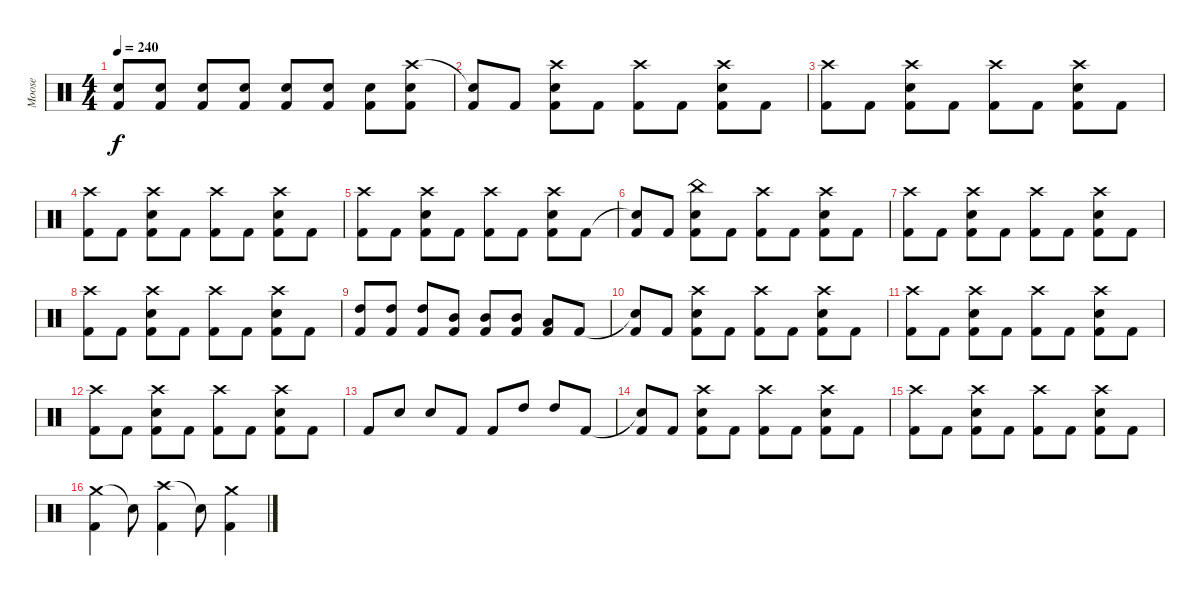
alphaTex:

\track ("Moose" "Moose") {instrument percussion}
\staff {score}
\articulation defaults
\ts (4 4)
\tempo 240
\clef neutral
\ks c
("Snare (hit) 2" "Kick (hit) 2").8{dy f} ("Snare (hit) 2" "Kick (hit) 2").8 ("Snare (hit) 2" "Kick (hit) 2").8 ("Snare (hit) 2" "Kick (hit) 2").8 ("Snare (hit) 2" "Kick (hit) 2").8 ("Snare (hit) 2" "Kick (hit) 2").8 ("Snare (hit) 2" "Kick (hit) 2").8 ("Crash high (hit)" "Snare (hit) 2" "Kick (hit) 2").8 |
("Snare (hit)"{t} "Kick (hit) 2").8 "Kick (hit) 2".8 ("Crash high (hit)" "Snare (hit) 2" "Kick (hit) 2").8 "Kick (hit) 2".8 ("Crash high (hit)" "Kick (hit) 2").8 "Kick (hit) 2".8 ("Crash high (hit)" "Snare (hit) 2" "Kick (hit) 2").8 "Kick (hit) 2".8 |
("Crash high (hit)" "Kick (hit) 2").8 "Kick (hit) 2".8 ("Crash high (hit)" "Snare (hit) 2" "Kick (hit) 2").8 "Kick (hit) 2".8 ("Crash high (hit)" "Kick (hit) 2").8 "Kick (hit) 2".8 ("Crash high (hit)" "Snare (hit) 2" "Kick (hit) 2").8 "Kick (hit) 2".8 |
("Crash high (hit)" "Kick (hit) 2").8 "Kick (hit) 2".8 ("Crash high (hit)" "Snare (hit) 2" "Kick (hit) 2").8 "Kick (hit) 2".8 ("Crash high (hit)" "Kick (hit) 2").8 "Kick (hit) 2".8 ("Crash high (hit)" "Snare (hit) 2" "Kick (hit) 2").8 "Kick (hit) 2".8 |
("Crash high (hit)" "Kick (hit) 2").8 "Kick (hit) 2".8 ("Crash high (hit)" "Snare (hit) 2" "Kick (hit) 2").8 "Kick (hit) 2".8 ("Crash high (hit)" "Kick (hit) 2").8 "Kick (hit) 2".8 ("Crash high (hit)" "Snare (hit) 2" "Kick (hit) 2").8 "Kick (hit) 2".8 |
("Snare (hit)"{t} "Kick (hit) 2").8 "Kick (hit) 2".8 ("China (hit)" "Snare (hit) 2" "Kick (hit) 2").8 "Kick (hit) 2".8 ("Crash high (hit)" "Kick (hit) 2").8 "Kick (hit) 2".8 ("Crash high (hit)" "Snare (hit) 2" "Kick (hit) 2").8 "Kick (hit) 2".8 |
("Crash high (hit)" "Kick (hit) 2").8 "Kick (hit) 2".8 ("Crash high (hit)" "Snare (hit) 2" "Kick (hit) 2").8 "Kick (hit) 2".8 ("Crash high (hit)" "Kick (hit) 2").8 "Kick (hit) 2".8 ("Crash high (hit)" "Snare (hit) 2" "Kick (hit) 2").8 "Kick (hit) 2".8 |
("Crash high (hit)" "Kick (hit) 2").8 "Kick (hit) 2".8 ("Crash high (hit)" "Snare (hit) 2" "Kick (hit) 2").8 "Kick (hit) 2".8 ("Crash high (hit)" "Kick (hit) 2").8 "Kick (hit) 2".8 ("Crash high (hit)" "Snare (hit) 2" "Kick (hit) 2").8 "Kick (hit) 2".8 |
("High Tom (hit)" "Kick (hit) 2").8 ("High Tom (hit)" "Kick (hit) 2").8 ("High Tom (hit)" "Kick (hit) 2").8 ("Mid Tom (hit)" "Kick (hit) 2").8 ("Mid Tom (hit)" "Kick (hit) 2").8 ("Mid Tom (hit)" "Kick (hit) 2").8 ("Low Tom (hit)" "Kick (hit) 2").8 "Kick (hit) 2".8 |
("Snare (hit)"{t} "Kick (hit) 2").8 "Kick (hit) 2".8 ("Crash high (hit)" "Snare (hit) 2" "Kick (hit) 2").8 "Kick (hit) 2".8 ("Crash high (hit)" "Kick (hit) 2").8 "Kick (hit) 2".8 ("Crash high (hit)" "Snare (hit) 2" "Kick (hit) 2").8 "Kick (hit) 2".8 |
("Crash high (hit)" "Kick (hit) 2").8 "Kick (hit) 2".8 ("Crash high (hit)" "Snare (hit) 2" "Kick (hit) 2").8 "Kick (hit) 2".8 ("Crash high (hit)" "Kick (hit) 2").8 "Kick (hit) 2".8 ("Crash high (hit)" "Snare (hit) 2" "Kick (hit) 2").8 "Kick (hit) 2".8 |
("Crash high (hit)" "Kick (hit) 2").8 "Kick (hit) 2".8 ("Crash high (hit)" "Snare (hit) 2" "Kick (hit) 2").8 "Kick (hit) 2".8 ("Crash high (hit)" "Kick (hit) 2").8 "Kick (hit) 2".8 ("Crash high (hit)" "Snare (hit) 2" "Kick (hit) 2").8 "Kick (hit) 2".8 |
"Kick (hit) 2".8 "Snare (hit) 2".8 "Snare (hit) 2".8 "Kick (hit) 2".8 "Kick (hit) 2".8 "High Tom (hit)".8 "High Tom (hit)".8 "Kick (hit) 2".8 |
("Snare (hit)"{t} "Kick (hit) 2").8 "Kick (hit) 2".8 ("Crash high (hit)" "Snare (hit) 2" "Kick (hit) 2").8 "Kick (hit) 2".8 ("Crash high (hit)" "Kick (hit) 2").8 "Kick (hit) 2".8 ("Crash high (hit)" "Snare (hit) 2" "Kick (hit) 2").8 "Kick (hit) 2".8 |
("Crash high (hit)" "Kick (hit) 2").8 "Kick (hit) 2".8 ("Crash high (hit)" "Snare (hit) 2" "Kick (hit) 2").8 "Kick (hit) 2".8 ("Crash high (hit)" "Kick (hit) 2").8 "Kick (hit) 2".8 ("Crash high (hit)" "Snare (hit) 2" "Kick (hit) 2").8 "Kick (hit) 2".8 |
("Crash medium (hit)" "Kick (hit) 2").4 "Snare (hit)"{t}.8 ("Crash high (hit)" "Kick (hit) 2").4 "Snare (hit)"{t}.8 ("Crash medium (hit)" "Kick (hit) 2").4
